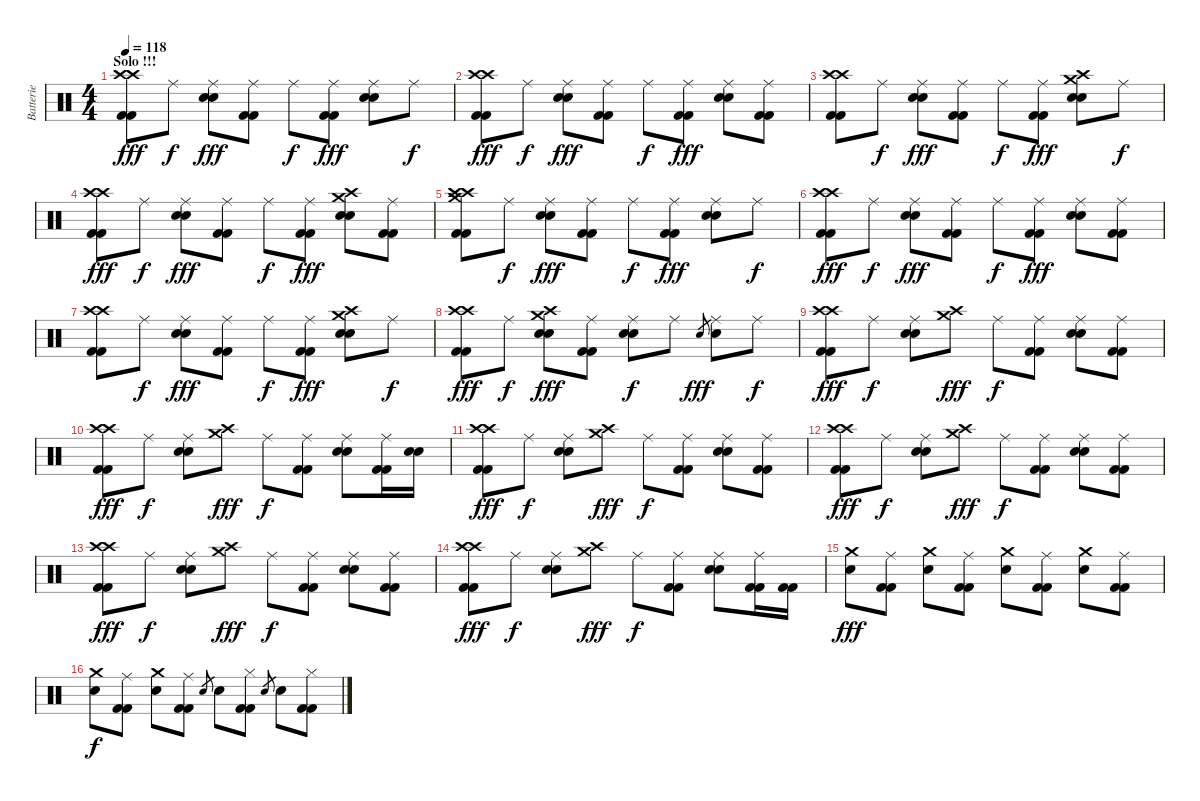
\track ("Batterie" "Batterie") {instrument percussion}
\staff {score}
\articulation defaults
\ts (4 4)
\section ("" "Solo !!!")
\tempo 118
\clef neutral
\ks c
("Crash high (hit)" "Crash high (hit)" "Kick (hit) 2" "Kick (hit) 2").8{dy fff} "Ride (middle)".8{dy f} ("Ride (middle)" "Snare (hit) 2" "Snare (hit) 2").8{dy fff} ("Ride (middle)" "Kick (hit) 2" "Kick (hit) 2").8 "Ride (middle)".8{dy f} ("Ride (middle)" "Kick (hit) 2" "Kick (hit) 2").8{dy fff} ("Ride (middle)" "Snare (hit) 2" "Snare (hit) 2").8 "Ride (middle)".8{dy f} |
("Crash high (hit)" "Crash high (hit)" "Kick (hit) 2" "Kick (hit) 2").8{dy fff} "Ride (middle)".8{dy f} ("Ride (middle)" "Snare (hit) 2" "Snare (hit) 2").8{dy fff} ("Ride (middle)" "Kick (hit) 2" "Kick (hit) 2").8 "Ride (middle)".8{dy f} ("Ride (middle)" "Kick (hit) 2" "Kick (hit) 2").8{dy fff} ("Ride (middle)" "Snare (hit) 2" "Snare (hit) 2").8 ("Ride (middle)" "Kick (hit) 2" "Kick (hit) 2").8 |
("Crash high (hit)" "Crash high (hit)" "Kick (hit) 2" "Kick (hit) 2").8 "Ride (middle)".8{dy f} ("Ride (middle)" "Snare (hit) 2" "Snare (hit) 2").8{dy fff} ("Ride (middle)" "Kick (hit) 2" "Kick (hit) 2").8 "Ride (middle)".8{dy f} ("Ride (middle)" "Kick (hit) 2" "Kick (hit) 2").8{dy fff} ("Crash medium (hit)" "Crash high (hit)" "Snare (hit) 2" "Snare (hit) 2").8 "Ride (middle)".8{dy f} |
("Crash high (hit)" "Crash high (hit)" "Kick (hit) 2" "Kick (hit) 2").8{dy fff} "Ride (middle)".8{dy f} ("Ride (middle)" "Snare (hit) 2" "Snare (hit) 2").8{dy fff} ("Ride (middle)" "Kick (hit) 2" "Kick (hit) 2").8 "Ride (middle)".8{dy f} ("Ride (middle)" "Kick (hit) 2" "Kick (hit) 2").8{dy fff} ("Crash medium (hit)" "Crash high (hit)" "Snare (hit) 2" "Snare (hit) 2").8 ("Ride (middle)" "Kick (hit) 2" "Kick (hit) 2").8 |
("Crash high (hit)" "Crash high (hit)" "Crash medium (hit)" "Kick (hit) 2" "Kick (hit) 2").8 "Ride (middle)".8{dy f} ("Ride (middle)" "Snare (hit) 2" "Snare (hit) 2").8{dy fff} ("Ride (middle)" "Kick (hit) 2" "Kick (hit) 2").8 "Ride (middle)".8{dy f} ("Ride (middle)" "Kick (hit) 2" "Kick (hit) 2").8{dy fff} ("Ride (middle)" "Snare (hit) 2" "Snare (hit) 2").8 "Ride (middle)".8{dy f} |
("Crash high (hit)" "Crash high (hit)" "Kick (hit) 2" "Kick (hit) 2").8{dy fff} "Ride (middle)".8{dy f} ("Ride (middle)" "Snare (hit) 2" "Snare (hit) 2").8{dy fff} ("Ride (middle)" "Kick (hit) 2" "Kick (hit) 2").8 "Ride (middle)".8{dy f} ("Ride (middle)" "Kick (hit) 2" "Kick (hit) 2").8{dy fff} ("Ride (middle)" "Snare (hit) 2" "Snare (hit) 2").8 ("Ride (middle)" "Kick (hit) 2" "Kick (hit) 2").8 |
("Crash high (hit)" "Crash high (hit)" "Kick (hit) 2" "Kick (hit) 2").8 "Ride (middle)".8{dy f} ("Ride (middle)" "Snare (hit) 2" "Snare (hit) 2").8{dy fff} ("Ride (middle)" "Kick (hit) 2" "Kick (hit) 2").8 "Ride (middle)".8{dy f} ("Ride (middle)" "Kick (hit) 2" "Kick (hit) 2").8{dy fff} ("Crash medium (hit)" "Crash high (hit)" "Snare (hit) 2" "Snare (hit) 2").8 "Ride (middle)".8{dy f} |
("Crash high (hit)" "Crash high (hit)" "Kick (hit) 2" "Kick (hit) 2").8{dy fff} "Ride (middle)".8{dy f} ("Crash medium (hit)" "Crash high (hit)" "Snare (hit) 2" "Snare (hit) 2").8{dy fff} ("Ride (middle)" "Kick (hit) 2" "Kick (hit) 2").8 ("Ride (middle)" "Snare (hit) 2" "Snare (hit) 2").8{dy f} "Ride (middle)".8 "Snare (hit) 2".8{gr dy fff} ("Ride (middle)" "Snare (hit) 2").8 "Ride (middle)".8{dy f} |
("Crash high (hit)" "Crash high (hit)" "Kick (hit) 2" "Kick (hit) 2").8{dy fff} "Ride (middle)".8{dy f} ("Ride (middle)" "Snare (hit) 2" "Snare (hit) 2").8 ("Crash medium (hit)" "Crash high (hit)").8{dy fff} "Ride (middle)".8{dy f} ("Ride (middle)" "Kick (hit) 2" "Kick (hit) 2").8 ("Ride (middle)" "Snare (hit) 2" "Snare (hit) 2").8 ("Ride (middle)" "Kick (hit) 2" "Kick (hit) 2").8 |
("Crash high (hit)" "Crash high (hit)" "Kick (hit) 2" "Kick (hit) 2").8{dy fff} "Ride (middle)".8{dy f} ("Ride (middle)" "Snare (hit) 2" "Snare (hit) 2").8 ("Crash medium (hit)" "Crash high (hit)").8{dy fff} "Ride (middle)".8{dy f} ("Ride (middle)" "Kick (hit) 2" "Kick (hit) 2").8 ("Ride (middle)" "Snare (hit) 2" "Snare (hit) 2").8 ("Ride (middle)" "Kick (hit) 2" "Kick (hit) 2").16 ("Snare (hit) 2" "Snare (hit) 2").16 |
("Crash high (hit)" "Crash high (hit)" "Kick (hit) 2" "Kick (hit) 2").8{dy fff} "Ride (middle)".8{dy f} ("Ride (middle)" "Snare (hit) 2" "Snare (hit) 2").8 ("Crash medium (hit)" "Crash high (hit)").8{dy fff} "Ride (middle)".8{dy f} ("Ride (middle)" "Kick (hit) 2" "Kick (hit) 2").8 ("Ride (middle)" "Snare (hit) 2" "Snare (hit) 2").8 ("Ride (middle)" "Kick (hit) 2" "Kick (hit) 2").8 |
("Crash high (hit)" "Crash high (hit)" "Kick (hit) 2" "Kick (hit) 2").8{dy fff} "Ride (middle)".8{dy f} ("Ride (middle)" "Snare (hit) 2" "Snare (hit) 2").8 ("Crash medium (hit)" "Crash high (hit)").8{dy fff} "Ride (middle)".8{dy f} ("Ride (middle)" "Kick (hit) 2" "Kick (hit) 2").8 ("Ride (middle)" "Snare (hit) 2" "Snare (hit) 2").8 ("Ride (middle)" "Kick (hit) 2" "Kick (hit) 2").8 |
("Crash high (hit)" "Crash high (hit)" "Kick (hit) 2" "Kick (hit) 2").8{dy fff} "Ride (middle)".8{dy f} ("Ride (middle)" "Snare (hit) 2" "Snare (hit) 2").8 ("Crash medium (hit)" "Crash high (hit)").8{dy fff} "Ride (middle)".8{dy f} ("Ride (middle)" "Kick (hit) 2" "Kick (hit) 2").8 ("Ride (middle)" "Snare (hit) 2" "Snare (hit) 2").8 ("Ride (middle)" "Kick (hit) 2" "Kick (hit) 2").8 |
("Crash high (hit)" "Crash high (hit)" "Kick (hit) 2" "Kick (hit) 2").8{dy fff} "Ride (middle)".8{dy f} ("Ride (middle)" "Snare (hit) 2" "Snare (hit) 2").8 ("Crash medium (hit)" "Crash high (hit)").8{dy fff} "Ride (middle)".8{dy f} ("Ride (middle)" "Kick (hit) 2" "Kick (hit) 2").8 ("Ride (middle)" "Snare (hit) 2" "Snare (hit) 2").8 ("Ride (middle)" "Kick (hit) 2" "Kick (hit) 2").16 ("Kick (hit) 2" "Kick (hit) 2").16 |
("Crash medium (hit)" "Snare (hit) 2").8{dy fff} ("Ride (middle)" "Kick (hit) 2" "Kick (hit) 2").8 ("Crash medium (hit)" "Snare (hit) 2").8 ("Ride (middle)" "Kick (hit) 2" "Kick (hit) 2").8 ("Crash medium (hit)" "Snare (hit) 2").8 ("Ride (middle)" "Kick (hit) 2" "Kick (hit) 2").8 ("Crash medium (hit)" "Snare (hit) 2").8 ("Ride (middle)" "Kick (hit) 2" "Kick (hit) 2").8 |
("Crash medium (hit)" "Snare (hit) 2").8{dy f} ("Ride (middle)" "Kick (hit) 2" "Kick (hit) 2").8 ("Crash medium (hit)" "Snare (hit) 2").8 ("Ride (middle)" "Kick (hit) 2" "Kick (hit) 2").8 "Snare (hit) 2".8{gr} "Snare (hit) 2".8 ("Hi-Hat (closed)" "Kick (hit) 2" "Kick (hit) 2").8 "Snare (hit) 2".8{gr} "Snare (hit) 2".8 ("Hi-Hat (closed)" "Kick (hit) 2" "Kick (hit) 2").8
